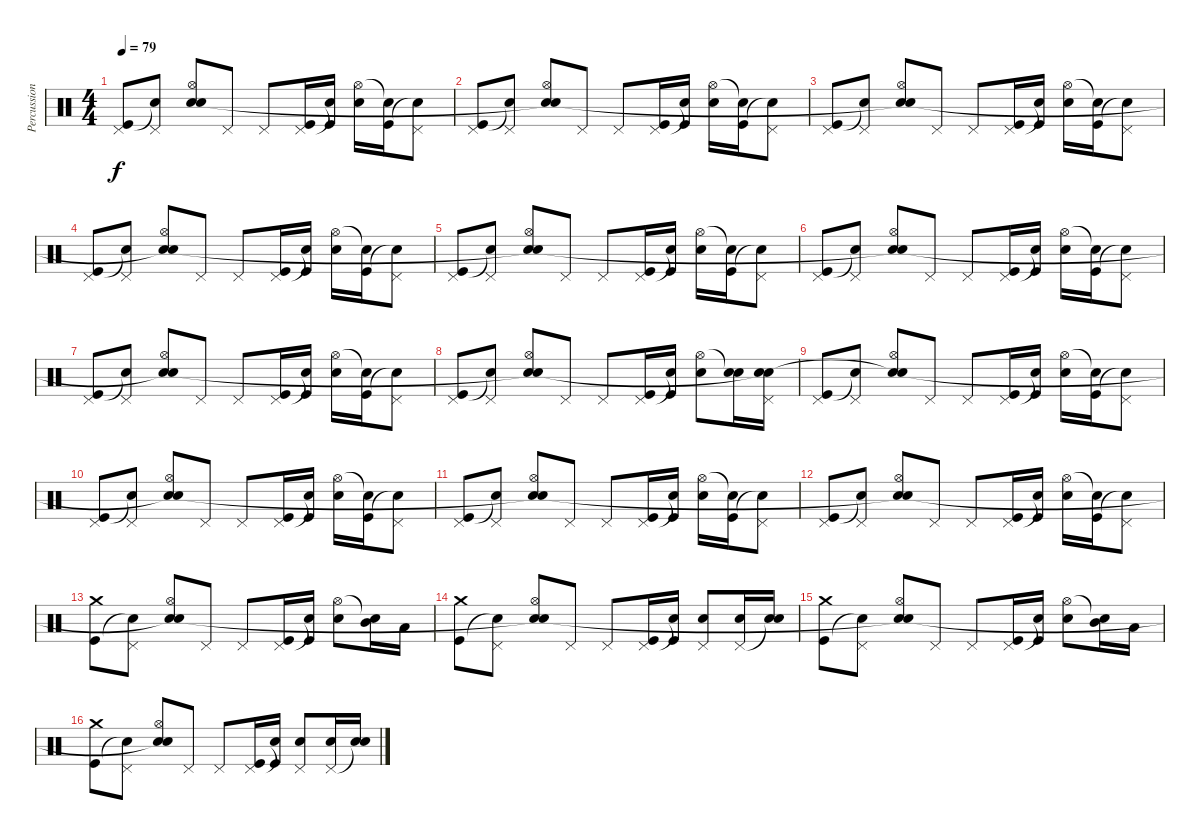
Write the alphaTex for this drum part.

\track ("Percussion" "Percussion") {instrument percussion}
\staff {score}
\articulation defaults
\ts (4 4)
\tempo 79
\clef neutral
\ks c
("Pedal Hi-Hat (hit)" "Kick (hit)").8{dy f} ("Pedal Hi-Hat (hit)" "Snare (hit)"{t}).8 ("Hi-Hat (open)" "Electric Snare (hit)" "Snare (hit)"{t}).8 "Pedal Hi-Hat (hit)".8 "Pedal Hi-Hat (hit)".8 ("Pedal Hi-Hat (hit)" "Kick (hit)").16 ("Snare (hit)"{t} "Kick (hit)").16 ("Hi-Hat (open)" "Electric Snare (hit)").16 ("Snare (hit)"{t} "Kick (hit)").16 ("Pedal Hi-Hat (hit)" "Snare (hit)"{t}).8 |
("Pedal Hi-Hat (hit)" "Kick (hit)").8 ("Pedal Hi-Hat (hit)" "Snare (hit)"{t}).8 ("Hi-Hat (open)" "Electric Snare (hit)" "Snare (hit)"{t}).8 "Pedal Hi-Hat (hit)".8 "Pedal Hi-Hat (hit)".8 ("Pedal Hi-Hat (hit)" "Kick (hit)").16 ("Snare (hit)"{t} "Kick (hit)").16 ("Hi-Hat (open)" "Electric Snare (hit)").16 ("Snare (hit)"{t} "Kick (hit)").16 ("Pedal Hi-Hat (hit)" "Snare (hit)"{t}).8 |
("Pedal Hi-Hat (hit)" "Kick (hit)").8 ("Pedal Hi-Hat (hit)" "Snare (hit)"{t}).8 ("Hi-Hat (open)" "Electric Snare (hit)" "Snare (hit)"{t}).8 "Pedal Hi-Hat (hit)".8 "Pedal Hi-Hat (hit)".8 ("Pedal Hi-Hat (hit)" "Kick (hit)").16 ("Snare (hit)"{t} "Kick (hit)").16 ("Hi-Hat (open)" "Electric Snare (hit)").16 ("Snare (hit)"{t} "Kick (hit)").16 ("Pedal Hi-Hat (hit)" "Snare (hit)"{t}).8 |
("Pedal Hi-Hat (hit)" "Kick (hit)").8 ("Pedal Hi-Hat (hit)" "Snare (hit)"{t}).8 ("Hi-Hat (open)" "Electric Snare (hit)" "Snare (hit)"{t}).8 "Pedal Hi-Hat (hit)".8 "Pedal Hi-Hat (hit)".8 ("Pedal Hi-Hat (hit)" "Kick (hit)").16 ("Snare (hit)"{t} "Kick (hit)").16 ("Hi-Hat (open)" "Electric Snare (hit)").16 ("Snare (hit)"{t} "Kick (hit)").16 ("Pedal Hi-Hat (hit)" "Snare (hit)"{t}).8 |
("Pedal Hi-Hat (hit)" "Kick (hit)").8 ("Pedal Hi-Hat (hit)" "Snare (hit)"{t}).8 ("Hi-Hat (open)" "Electric Snare (hit)" "Snare (hit)"{t}).8 "Pedal Hi-Hat (hit)".8 "Pedal Hi-Hat (hit)".8 ("Pedal Hi-Hat (hit)" "Kick (hit)").16 ("Snare (hit)"{t} "Kick (hit)").16 ("Hi-Hat (open)" "Electric Snare (hit)").16 ("Snare (hit)"{t} "Kick (hit)").16 ("Pedal Hi-Hat (hit)" "Snare (hit)"{t}).8 |
("Pedal Hi-Hat (hit)" "Kick (hit)").8 ("Pedal Hi-Hat (hit)" "Snare (hit)"{t}).8 ("Hi-Hat (open)" "Electric Snare (hit)" "Snare (hit)"{t}).8 "Pedal Hi-Hat (hit)".8 "Pedal Hi-Hat (hit)".8 ("Pedal Hi-Hat (hit)" "Kick (hit)").16 ("Snare (hit)"{t} "Kick (hit)").16 ("Hi-Hat (open)" "Electric Snare (hit)").16 ("Snare (hit)"{t} "Kick (hit)").16 ("Pedal Hi-Hat (hit)" "Snare (hit)"{t}).8 |
("Pedal Hi-Hat (hit)" "Kick (hit)").8 ("Pedal Hi-Hat (hit)" "Snare (hit)"{t}).8 ("Hi-Hat (open)" "Electric Snare (hit)" "Snare (hit)"{t}).8 "Pedal Hi-Hat (hit)".8 "Pedal Hi-Hat (hit)".8 ("Pedal Hi-Hat (hit)" "Kick (hit)").16 ("Snare (hit)"{t} "Kick (hit)").16 ("Hi-Hat (open)" "Electric Snare (hit)").16 ("Snare (hit)"{t} "Kick (hit)").16 ("Pedal Hi-Hat (hit)" "Snare (hit)"{t}).8 |
("Pedal Hi-Hat (hit)" "Kick (hit)").8 ("Pedal Hi-Hat (hit)" "Snare (hit)"{t}).8 ("Hi-Hat (open)" "Electric Snare (hit)" "Snare (hit)"{t}).8 "Pedal Hi-Hat (hit)".8 "Pedal Hi-Hat (hit)".8 ("Pedal Hi-Hat (hit)" "Kick (hit)").16 ("Snare (hit)"{t} "Kick (hit)").16 ("Hi-Hat (open)" "Electric Snare (hit)").8 ("Snare (hit)"{t} "Electric Snare (hit)").16 ("Pedal Hi-Hat (hit)" "Electric Snare (hit)" "Snare (hit)"{t}).16 |
("Pedal Hi-Hat (hit)" "Kick (hit)").8 ("Pedal Hi-Hat (hit)" "Snare (hit)"{t}).8 ("Hi-Hat (open)" "Electric Snare (hit)" "Snare (hit)"{t}).8 "Pedal Hi-Hat (hit)".8 "Pedal Hi-Hat (hit)".8 ("Pedal Hi-Hat (hit)" "Kick (hit)").16 ("Snare (hit)"{t} "Kick (hit)").16 ("Hi-Hat (open)" "Electric Snare (hit)").16 ("Snare (hit)"{t} "Kick (hit)").16 ("Pedal Hi-Hat (hit)" "Snare (hit)"{t}).8 |
("Pedal Hi-Hat (hit)" "Kick (hit)").8 ("Pedal Hi-Hat (hit)" "Snare (hit)"{t}).8 ("Hi-Hat (open)" "Electric Snare (hit)" "Snare (hit)"{t}).8 "Pedal Hi-Hat (hit)".8 "Pedal Hi-Hat (hit)".8 ("Pedal Hi-Hat (hit)" "Kick (hit)").16 ("Snare (hit)"{t} "Kick (hit)").16 ("Hi-Hat (open)" "Electric Snare (hit)").16 ("Snare (hit)"{t} "Kick (hit)").16 ("Pedal Hi-Hat (hit)" "Snare (hit)"{t}).8 |
("Pedal Hi-Hat (hit)" "Kick (hit)").8 ("Pedal Hi-Hat (hit)" "Snare (hit)"{t}).8 ("Hi-Hat (open)" "Electric Snare (hit)" "Snare (hit)"{t}).8 "Pedal Hi-Hat (hit)".8 "Pedal Hi-Hat (hit)".8 ("Pedal Hi-Hat (hit)" "Kick (hit)").16 ("Snare (hit)"{t} "Kick (hit)").16 ("Hi-Hat (open)" "Electric Snare (hit)").16 ("Snare (hit)"{t} "Kick (hit)").16 ("Pedal Hi-Hat (hit)" "Snare (hit)"{t}).8 |
("Pedal Hi-Hat (hit)" "Kick (hit)").8 ("Pedal Hi-Hat (hit)" "Snare (hit)"{t}).8 ("Hi-Hat (open)" "Electric Snare (hit)" "Snare (hit)"{t}).8 "Pedal Hi-Hat (hit)".8 "Pedal Hi-Hat (hit)".8 ("Pedal Hi-Hat (hit)" "Kick (hit)").16 ("Snare (hit)"{t} "Kick (hit)").16 ("Hi-Hat (open)" "Electric Snare (hit)").16 ("Snare (hit)"{t} "Kick (hit)").16 ("Pedal Hi-Hat (hit)" "Snare (hit)"{t}).8 |
("Crash medium (hit)" "Kick (hit)").8 ("Pedal Hi-Hat (hit)" "Snare (hit)"{t}).8 ("Hi-Hat (open)" "Electric Snare (hit)" "Snare (hit)"{t}).8 "Pedal Hi-Hat (hit)".8 "Pedal Hi-Hat (hit)".8 ("Pedal Hi-Hat (hit)" "Kick (hit)").16 ("Snare (hit)"{t} "Kick (hit)").16 ("Hi-Hat (open)" "Electric Snare (hit)").8 ("Snare (hit)"{t} "Mid Tom (hit)").16 "Low Tom (hit)".16 |
("Crash medium (hit)" "Kick (hit)").8 ("Pedal Hi-Hat (hit)" "Snare (hit)"{t}).8 ("Hi-Hat (open)" "Electric Snare (hit)" "Snare (hit)"{t}).8 "Pedal Hi-Hat (hit)".8 "Pedal Hi-Hat (hit)".8 ("Pedal Hi-Hat (hit)" "Kick (hit)").16 ("Snare (hit)"{t} "Kick (hit)").16 ("Pedal Hi-Hat (hit)" "Electric Snare (hit)").8 ("Pedal Hi-Hat (hit)" "Electric Snare (hit)").16 ("Snare (hit)"{t} "Electric Snare (hit)").16 |
("Crash medium (hit)" "Kick (hit)").8 ("Pedal Hi-Hat (hit)" "Snare (hit)"{t}).8 ("Hi-Hat (open)" "Electric Snare (hit)" "Snare (hit)"{t}).8 "Pedal Hi-Hat (hit)".8 "Pedal Hi-Hat (hit)".8 ("Pedal Hi-Hat (hit)" "Kick (hit)").16 ("Snare (hit)"{t} "Kick (hit)").16 ("Hi-Hat (open)" "Electric Snare (hit)").8 ("Snare (hit)"{t} "Mid Tom (hit)").16 "Low Tom (hit)".16 |
("Crash medium (hit)" "Kick (hit)").8 ("Pedal Hi-Hat (hit)" "Snare (hit)"{t}).8 ("Hi-Hat (open)" "Electric Snare (hit)" "Snare (hit)"{t}).8 "Pedal Hi-Hat (hit)".8 "Pedal Hi-Hat (hit)".8 ("Pedal Hi-Hat (hit)" "Kick (hit)").16 ("Snare (hit)"{t} "Kick (hit)").16 ("Pedal Hi-Hat (hit)" "Electric Snare (hit)").8 ("Pedal Hi-Hat (hit)" "Electric Snare (hit)").16 ("Snare (hit)"{t} "Electric Snare (hit)").16
